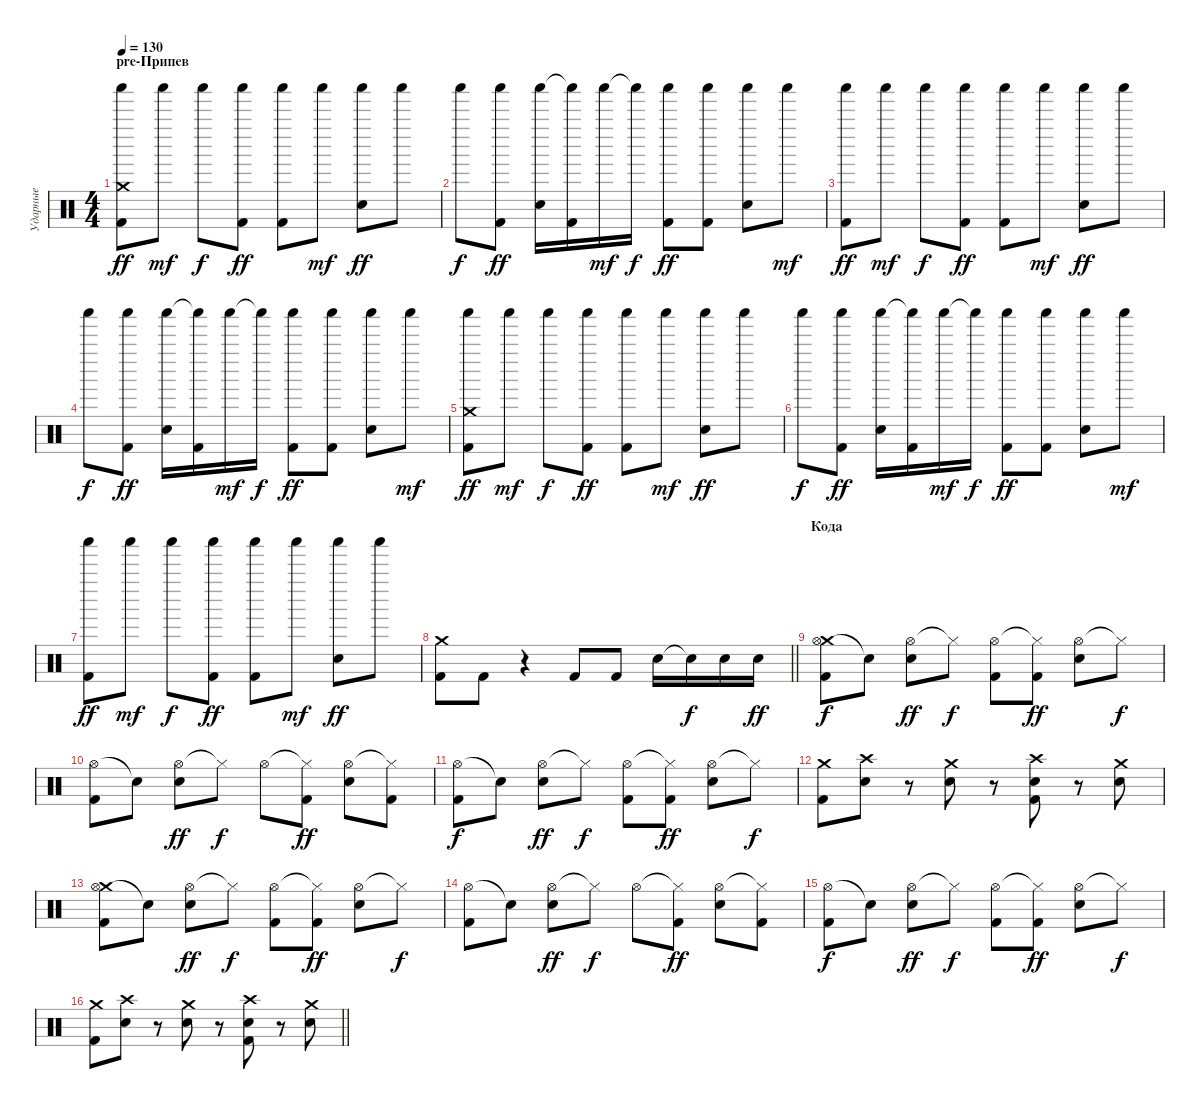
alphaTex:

\track ("Ударные" "Ударные") {instrument percussion}
\staff {score}
\articulation defaults
\ts (4 4)
\section ("" "pre-Припев")
\tempo 130
\clef neutral
\ks c
("Shaker (hit)" "Kick (hit) 2" "Crash medium (hit)").8{dy ff} "Shaker (hit)".8{dy mf} "Shaker (hit)".8{dy f} ("Shaker (hit)" "Kick (hit) 2").8{dy ff} ("Shaker (hit)" "Kick (hit) 2").8 "Shaker (hit)".8{dy mf} ("Shaker (hit)" "Snare (hit) 2").8{dy ff} "Shaker (hit)".8 |
"Shaker (hit)".8{dy f} ("Shaker (hit)" "Kick (hit) 2").8{dy ff} ("Shaker (hit)" "Snare (hit) 2").16 ("Shaker (hit)"{t} "Kick (hit) 2").16 "Shaker (hit)".16{dy mf} "Shaker (hit)"{t}.16{dy f} ("Shaker (hit)" "Kick (hit) 2").8{dy ff} ("Shaker (hit)" "Kick (hit) 2").8 ("Shaker (hit)" "Snare (hit) 2").8 "Shaker (hit)".8{dy mf} |
("Shaker (hit)" "Kick (hit) 2").8{dy ff} "Shaker (hit)".8{dy mf} "Shaker (hit)".8{dy f} ("Shaker (hit)" "Kick (hit) 2").8{dy ff} ("Shaker (hit)" "Kick (hit) 2").8 "Shaker (hit)".8{dy mf} ("Shaker (hit)" "Snare (hit) 2").8{dy ff} "Shaker (hit)".8 |
"Shaker (hit)".8{dy f} ("Shaker (hit)" "Kick (hit) 2").8{dy ff} ("Shaker (hit)" "Snare (hit) 2").16 ("Shaker (hit)"{t} "Kick (hit) 2").16 "Shaker (hit)".16{dy mf} "Shaker (hit)"{t}.16{dy f} ("Shaker (hit)" "Kick (hit) 2").8{dy ff} ("Shaker (hit)" "Kick (hit) 2").8 ("Shaker (hit)" "Snare (hit) 2").8 "Shaker (hit)".8{dy mf} |
("Shaker (hit)" "Kick (hit) 2" "Crash medium (hit)").8{dy ff} "Shaker (hit)".8{dy mf} "Shaker (hit)".8{dy f} ("Shaker (hit)" "Kick (hit) 2").8{dy ff} ("Shaker (hit)" "Kick (hit) 2").8 "Shaker (hit)".8{dy mf} ("Shaker (hit)" "Snare (hit) 2").8{dy ff} "Shaker (hit)".8 |
"Shaker (hit)".8{dy f} ("Shaker (hit)" "Kick (hit) 2").8{dy ff} ("Shaker (hit)" "Snare (hit) 2").16 ("Shaker (hit)"{t} "Kick (hit) 2").16 "Shaker (hit)".16{dy mf} "Shaker (hit)"{t}.16{dy f} ("Shaker (hit)" "Kick (hit) 2").8{dy ff} ("Shaker (hit)" "Kick (hit) 2").8 ("Shaker (hit)" "Snare (hit) 2").8 "Shaker (hit)".8{dy mf} |
("Shaker (hit)" "Kick (hit) 2").8{dy ff} "Shaker (hit)".8{dy mf} "Shaker (hit)".8{dy f} ("Shaker (hit)" "Kick (hit) 2").8{dy ff} ("Shaker (hit)" "Kick (hit) 2").8 "Shaker (hit)".8{dy mf} ("Shaker (hit)" "Snare (hit) 2").8{dy ff} "Shaker (hit)".8 |
\barLineRight lightlight
("Kick (hit) 2" "Crash medium (hit)").8 "Kick (hit) 2".8 r.4 "Kick (hit) 2".8 "Kick (hit) 2".8 "Snare (hit) 2".16 "Snare (hit) 2"{t}.16{dy f} "Snare (hit) 2".16 "Snare (hit) 2".16{dy ff} |
\section ("" "Кода")
("Crash medium (hit)" "Hi-Hat (open)" "Kick (hit) 2").8{dy f} "Snare (hit)"{t}.8 ("Hi-Hat (open)" "Snare (hit) 2").8{dy ff} "Hi-Hat (closed)"{t}.8{dy f} ("Hi-Hat (open)" "Kick (hit) 2").8 ("Hi-Hat (closed)"{t} "Kick (hit) 2").8{dy ff} ("Hi-Hat (open)" "Snare (hit) 2").8 "Hi-Hat (closed)"{t}.8{dy f} |
("Hi-Hat (open)" "Kick (hit) 2").8 "Snare (hit)"{t}.8 ("Hi-Hat (open)" "Snare (hit) 2").8{dy ff} "Hi-Hat (closed)"{t}.8{dy f} "Hi-Hat (open)".8 ("Hi-Hat (closed)"{t} "Kick (hit) 2").8{dy ff} ("Hi-Hat (open)" "Snare (hit) 2").8 ("Hi-Hat (closed)"{t} "Kick (hit) 2").8 |
("Hi-Hat (open)" "Kick (hit) 2").8{dy f} "Snare (hit)"{t}.8 ("Hi-Hat (open)" "Snare (hit) 2").8{dy ff} "Hi-Hat (closed)"{t}.8{dy f} ("Hi-Hat (open)" "Kick (hit) 2").8 ("Hi-Hat (closed)"{t} "Kick (hit) 2").8{dy ff} ("Hi-Hat (open)" "Snare (hit) 2").8 "Hi-Hat (closed)"{t}.8{dy f} |
("Crash medium (hit)" "Kick (hit) 2").8 ("Crash high (hit)" "Snare (hit) 2").8 r.8 ("Crash medium (hit)" "Snare (hit) 2").8 r.8 ("Crash high (hit)" "Snare (hit) 2" "Kick (hit) 2").8 r.8 ("Crash medium (hit)" "Snare (hit) 2").8 |
("Crash medium (hit)" "Hi-Hat (open)" "Kick (hit) 2").8 "Snare (hit)"{t}.8 ("Hi-Hat (open)" "Snare (hit) 2").8{dy ff} "Hi-Hat (closed)"{t}.8{dy f} ("Hi-Hat (open)" "Kick (hit) 2").8 ("Hi-Hat (closed)"{t} "Kick (hit) 2").8{dy ff} ("Hi-Hat (open)" "Snare (hit) 2").8 "Hi-Hat (closed)"{t}.8{dy f} |
("Hi-Hat (open)" "Kick (hit) 2").8 "Snare (hit)"{t}.8 ("Hi-Hat (open)" "Snare (hit) 2").8{dy ff} "Hi-Hat (closed)"{t}.8{dy f} "Hi-Hat (open)".8 ("Hi-Hat (closed)"{t} "Kick (hit) 2").8{dy ff} ("Hi-Hat (open)" "Snare (hit) 2").8 ("Hi-Hat (closed)"{t} "Kick (hit) 2").8 |
("Hi-Hat (open)" "Kick (hit) 2").8{dy f} "Snare (hit)"{t}.8 ("Hi-Hat (open)" "Snare (hit) 2").8{dy ff} "Hi-Hat (closed)"{t}.8{dy f} ("Hi-Hat (open)" "Kick (hit) 2").8 ("Hi-Hat (closed)"{t} "Kick (hit) 2").8{dy ff} ("Hi-Hat (open)" "Snare (hit) 2").8 "Hi-Hat (closed)"{t}.8{dy f} |
\barLineRight lightlight
("Crash medium (hit)" "Kick (hit) 2").8 ("Crash high (hit)" "Snare (hit) 2").8 r.8 ("Crash medium (hit)" "Snare (hit) 2").8 r.8 ("Crash high (hit)" "Snare (hit) 2" "Kick (hit) 2").8 r.8 ("Crash medium (hit)" "Snare (hit) 2").8
